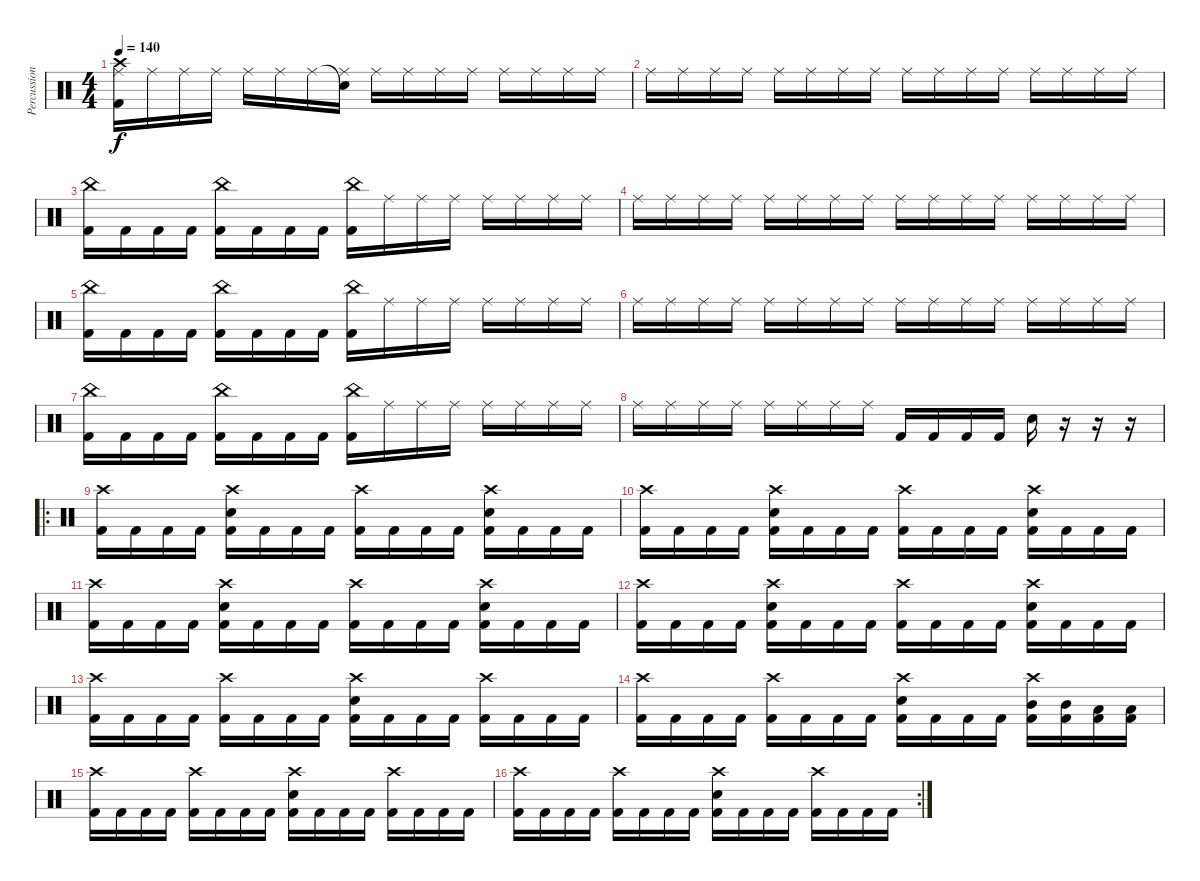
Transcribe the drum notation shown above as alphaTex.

\track ("Percussion" "Percussion") {instrument percussion}
\staff {score}
\articulation defaults
\ts (4 4)
\tempo 140
\clef neutral
\ks c
("Crash high (hit)" "Kick (hit) 2" "Ride (middle)").16{dy f} "Ride (middle)".16 "Ride (middle)".16 "Ride (middle)".16 "Ride (middle)".16 "Ride (middle)".16 "Ride (middle)".16 ("Snare (hit)"{t} "Ride (middle)").16 "Ride (middle)".16 "Ride (middle)".16 "Ride (middle)".16 "Ride (middle)".16 "Ride (middle)".16 "Ride (middle)".16 "Ride (middle)".16 "Ride (middle)".16 |
"Ride (middle)".16 "Ride (middle)".16 "Ride (middle)".16 "Ride (middle)".16 "Ride (middle)".16 "Ride (middle)".16 "Ride (middle)".16 "Ride (middle)".16 "Ride (middle)".16 "Ride (middle)".16 "Ride (middle)".16 "Ride (middle)".16 "Ride (middle)".16 "Ride (middle)".16 "Ride (middle)".16 "Ride (middle)".16 |
("China (hit)" "Kick (hit) 2").16 "Kick (hit) 2".16 "Kick (hit) 2".16 "Kick (hit) 2".16 ("China (hit)" "Kick (hit) 2").16 "Kick (hit) 2".16 "Kick (hit) 2".16 "Kick (hit) 2".16 ("China (hit)" "Kick (hit) 2").16 "Ride (middle)".16 "Ride (middle)".16 "Ride (middle)".16 "Ride (middle)".16 "Ride (middle)".16 "Ride (middle)".16 "Ride (middle)".16 |
"Ride (middle)".16 "Ride (middle)".16 "Ride (middle)".16 "Ride (middle)".16 "Ride (middle)".16 "Ride (middle)".16 "Ride (middle)".16 "Ride (middle)".16 "Ride (middle)".16 "Ride (middle)".16 "Ride (middle)".16 "Ride (middle)".16 "Ride (middle)".16 "Ride (middle)".16 "Ride (middle)".16 "Ride (middle)".16 |
("China (hit)" "Kick (hit) 2").16 "Kick (hit) 2".16 "Kick (hit) 2".16 "Kick (hit) 2".16 ("China (hit)" "Kick (hit) 2").16 "Kick (hit) 2".16 "Kick (hit) 2".16 "Kick (hit) 2".16 ("China (hit)" "Kick (hit) 2").16 "Ride (middle)".16 "Ride (middle)".16 "Ride (middle)".16 "Ride (middle)".16 "Ride (middle)".16 "Ride (middle)".16 "Ride (middle)".16 |
"Ride (middle)".16 "Ride (middle)".16 "Ride (middle)".16 "Ride (middle)".16 "Ride (middle)".16 "Ride (middle)".16 "Ride (middle)".16 "Ride (middle)".16 "Ride (middle)".16 "Ride (middle)".16 "Ride (middle)".16 "Ride (middle)".16 "Ride (middle)".16 "Ride (middle)".16 "Ride (middle)".16 "Ride (middle)".16 |
("China (hit)" "Kick (hit) 2").16 "Kick (hit) 2".16 "Kick (hit) 2".16 "Kick (hit) 2".16 ("China (hit)" "Kick (hit) 2").16 "Kick (hit) 2".16 "Kick (hit) 2".16 "Kick (hit) 2".16 ("China (hit)" "Kick (hit) 2").16 "Ride (middle)".16 "Ride (middle)".16 "Ride (middle)".16 "Ride (middle)".16 "Ride (middle)".16 "Ride (middle)".16 "Ride (middle)".16 |
"Ride (middle)".16 "Ride (middle)".16 "Ride (middle)".16 "Ride (middle)".16 "Ride (middle)".16 "Ride (middle)".16 "Ride (middle)".16 "Ride (middle)".16 "Kick (hit) 2".16 "Kick (hit) 2".16 "Kick (hit) 2".16 "Kick (hit) 2".16 "Snare (hit) 2".16 r.16 r.16 r.16 |
\ro
("Crash high (hit)" "Kick (hit) 2").16 "Kick (hit) 2".16 "Kick (hit) 2".16 "Kick (hit) 2".16 ("Crash high (hit)" "Snare (hit) 2" "Kick (hit) 2").16 "Kick (hit) 2".16 "Kick (hit) 2".16 "Kick (hit) 2".16 ("Crash high (hit)" "Kick (hit) 2").16 "Kick (hit) 2".16 "Kick (hit) 2".16 "Kick (hit) 2".16 ("Crash high (hit)" "Snare (hit) 2" "Kick (hit) 2").16 "Kick (hit) 2".16 "Kick (hit) 2".16 "Kick (hit) 2".16 |
("Crash high (hit)" "Kick (hit) 2").16 "Kick (hit) 2".16 "Kick (hit) 2".16 "Kick (hit) 2".16 ("Crash high (hit)" "Snare (hit) 2" "Kick (hit) 2").16 "Kick (hit) 2".16 "Kick (hit) 2".16 "Kick (hit) 2".16 ("Crash high (hit)" "Kick (hit) 2").16 "Kick (hit) 2".16 "Kick (hit) 2".16 "Kick (hit) 2".16 ("Crash high (hit)" "Snare (hit) 2" "Kick (hit) 2").16 "Kick (hit) 2".16 "Kick (hit) 2".16 "Kick (hit) 2".16 |
("Crash high (hit)" "Kick (hit) 2").16 "Kick (hit) 2".16 "Kick (hit) 2".16 "Kick (hit) 2".16 ("Crash high (hit)" "Snare (hit) 2" "Kick (hit) 2").16 "Kick (hit) 2".16 "Kick (hit) 2".16 "Kick (hit) 2".16 ("Crash high (hit)" "Kick (hit) 2").16 "Kick (hit) 2".16 "Kick (hit) 2".16 "Kick (hit) 2".16 ("Crash high (hit)" "Snare (hit) 2" "Kick (hit) 2").16 "Kick (hit) 2".16 "Kick (hit) 2".16 "Kick (hit) 2".16 |
("Crash high (hit)" "Kick (hit) 2").16 "Kick (hit) 2".16 "Kick (hit) 2".16 "Kick (hit) 2".16 ("Crash high (hit)" "Snare (hit) 2" "Kick (hit) 2").16 "Kick (hit) 2".16 "Kick (hit) 2".16 "Kick (hit) 2".16 ("Crash high (hit)" "Kick (hit) 2").16 "Kick (hit) 2".16 "Kick (hit) 2".16 "Kick (hit) 2".16 ("Crash high (hit)" "Snare (hit) 2" "Kick (hit) 2").16 "Kick (hit) 2".16 "Kick (hit) 2".16 "Kick (hit) 2".16 |
("Crash high (hit)" "Kick (hit) 2").16 "Kick (hit) 2".16 "Kick (hit) 2".16 "Kick (hit) 2".16 ("Crash high (hit)" "Kick (hit) 2").16 "Kick (hit) 2".16 "Kick (hit) 2".16 "Kick (hit) 2".16 ("Crash high (hit)" "Snare (hit) 2" "Kick (hit) 2").16 "Kick (hit) 2".16 "Kick (hit) 2".16 "Kick (hit) 2".16 ("Crash high (hit)" "Kick (hit) 2").16 "Kick (hit) 2".16 "Kick (hit) 2".16 "Kick (hit) 2".16 |
("Crash high (hit)" "Kick (hit) 2").16 "Kick (hit) 2".16 "Kick (hit) 2".16 "Kick (hit) 2".16 ("Crash high (hit)" "Kick (hit) 2").16 "Kick (hit) 2".16 "Kick (hit) 2".16 "Kick (hit) 2".16 ("Crash high (hit)" "Snare (hit) 2" "Kick (hit) 2").16 "Kick (hit) 2".16 "Kick (hit) 2".16 "Kick (hit) 2".16 ("Crash high (hit)" "Mid Tom (hit)" "Kick (hit) 2").16 ("Mid Tom (hit)" "Kick (hit) 2").16 ("Low Tom (hit)" "Kick (hit) 2").16 ("Low Tom (hit)" "Kick (hit) 2").16 |
("Crash high (hit)" "Kick (hit) 2").16 "Kick (hit) 2".16 "Kick (hit) 2".16 "Kick (hit) 2".16 ("Crash high (hit)" "Kick (hit) 2").16 "Kick (hit) 2".16 "Kick (hit) 2".16 "Kick (hit) 2".16 ("Crash high (hit)" "Snare (hit) 2" "Kick (hit) 2").16 "Kick (hit) 2".16 "Kick (hit) 2".16 "Kick (hit) 2".16 ("Crash high (hit)" "Kick (hit) 2").16 "Kick (hit) 2".16 "Kick (hit) 2".16 "Kick (hit) 2".16 |
\rc 2
("Crash high (hit)" "Kick (hit) 2").16 "Kick (hit) 2".16 "Kick (hit) 2".16 "Kick (hit) 2".16 ("Crash high (hit)" "Kick (hit) 2").16 "Kick (hit) 2".16 "Kick (hit) 2".16 "Kick (hit) 2".16 ("Crash high (hit)" "Snare (hit) 2" "Kick (hit) 2").16 "Kick (hit) 2".16 "Kick (hit) 2".16 "Kick (hit) 2".16 ("Crash high (hit)" "Kick (hit) 2").16 "Kick (hit) 2".16 "Kick (hit) 2".16 "Kick (hit) 2".16
